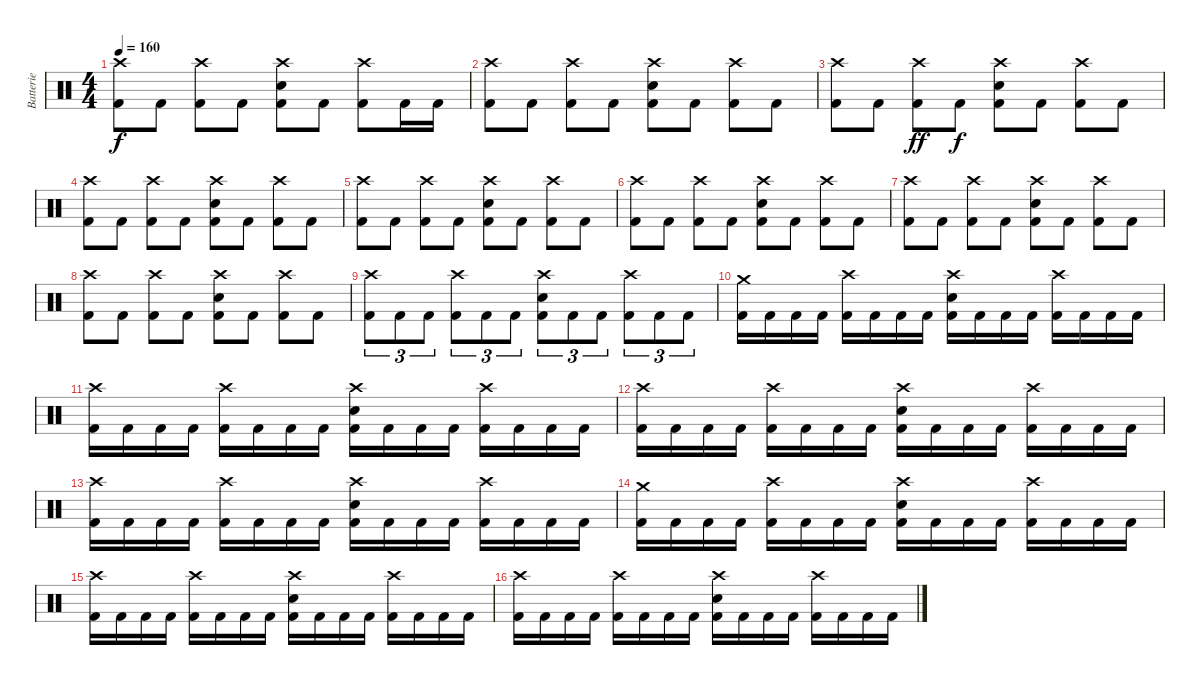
\track ("Batterie" "Batterie") {instrument percussion}
\staff {score}
\articulation defaults
\ts (4 4)
\tempo 160
\clef neutral
\ks c
("Crash high (hit)" "Kick (hit) 2").8{dy f} "Kick (hit) 2".8 ("Crash high (hit)" "Kick (hit) 2").8 "Kick (hit) 2".8 ("Crash high (hit)" "Electric Snare (hit)" "Kick (hit) 2").8 "Kick (hit) 2".8 ("Crash high (hit)" "Kick (hit) 2").8 "Kick (hit) 2".16 "Kick (hit) 2".16 |
("Crash high (hit)" "Kick (hit) 2").8 "Kick (hit) 2".8 ("Crash high (hit)" "Kick (hit) 2").8 "Kick (hit) 2".8 ("Crash high (hit)" "Electric Snare (hit)" "Kick (hit) 2").8 "Kick (hit) 2".8 ("Crash high (hit)" "Kick (hit) 2").8 "Kick (hit) 2".8 |
("Crash high (hit)" "Kick (hit) 2").8 "Kick (hit) 2".8 ("Crash high (hit)" "Kick (hit) 2").8{dy ff} "Kick (hit) 2".8{dy f} ("Crash high (hit)" "Electric Snare (hit)" "Kick (hit) 2").8 "Kick (hit) 2".8 ("Crash high (hit)" "Kick (hit) 2").8 "Kick (hit) 2".8 |
("Crash high (hit)" "Kick (hit) 2").8 "Kick (hit) 2".8 ("Crash high (hit)" "Kick (hit) 2").8 "Kick (hit) 2".8 ("Crash high (hit)" "Electric Snare (hit)" "Kick (hit) 2").8 "Kick (hit) 2".8 ("Crash high (hit)" "Kick (hit) 2").8 "Kick (hit) 2".8 |
("Crash high (hit)" "Kick (hit) 2").8 "Kick (hit) 2".8 ("Crash high (hit)" "Kick (hit) 2").8 "Kick (hit) 2".8 ("Crash high (hit)" "Electric Snare (hit)" "Kick (hit) 2").8 "Kick (hit) 2".8 ("Crash high (hit)" "Kick (hit) 2").8 "Kick (hit) 2".8 |
("Crash high (hit)" "Kick (hit) 2").8 "Kick (hit) 2".8 ("Crash high (hit)" "Kick (hit) 2").8 "Kick (hit) 2".8 ("Crash high (hit)" "Electric Snare (hit)" "Kick (hit) 2").8 "Kick (hit) 2".8 ("Crash high (hit)" "Kick (hit) 2").8 "Kick (hit) 2".8 |
("Crash high (hit)" "Kick (hit) 2").8 "Kick (hit) 2".8 ("Crash high (hit)" "Kick (hit) 2").8 "Kick (hit) 2".8 ("Crash high (hit)" "Electric Snare (hit)" "Kick (hit) 2").8 "Kick (hit) 2".8 ("Crash high (hit)" "Kick (hit) 2").8 "Kick (hit) 2".8 |
("Crash high (hit)" "Kick (hit) 2").8 "Kick (hit) 2".8 ("Crash high (hit)" "Kick (hit) 2").8 "Kick (hit) 2".8 ("Crash high (hit)" "Electric Snare (hit)" "Kick (hit) 2").8 "Kick (hit) 2".8 ("Crash high (hit)" "Kick (hit) 2").8 "Kick (hit) 2".8 |
("Crash high (hit)" "Kick (hit) 2").8{tu (3 2)} "Kick (hit) 2".8{tu (3 2)} "Kick (hit) 2".8{tu (3 2)} ("Crash high (hit)" "Kick (hit) 2").8{tu (3 2)} "Kick (hit) 2".8{tu (3 2)} "Kick (hit) 2".8{tu (3 2)} ("Crash high (hit)" "Electric Snare (hit)" "Kick (hit) 2").8{tu (3 2)} "Kick (hit) 2".8{tu (3 2)} "Kick (hit) 2".8{tu (3 2)} ("Crash high (hit)" "Kick (hit) 2").8{tu (3 2)} "Kick (hit) 2".8{tu (3 2)} "Kick (hit) 2".8{tu (3 2)} |
("Crash medium (hit)" "Kick (hit) 2").16 "Kick (hit) 2".16 "Kick (hit) 2".16 "Kick (hit) 2".16 ("Crash high (hit)" "Kick (hit) 2").16 "Kick (hit) 2".16 "Kick (hit) 2".16 "Kick (hit) 2".16 ("Crash high (hit)" "Electric Snare (hit)" "Kick (hit) 2").16 "Kick (hit) 2".16 "Kick (hit) 2".16 "Kick (hit) 2".16 ("Crash high (hit)" "Kick (hit) 2").16 "Kick (hit) 2".16 "Kick (hit) 2".16 "Kick (hit) 2".16 |
("Crash high (hit)" "Kick (hit) 2").16 "Kick (hit) 2".16 "Kick (hit) 2".16 "Kick (hit) 2".16 ("Crash high (hit)" "Kick (hit) 2").16 "Kick (hit) 2".16 "Kick (hit) 2".16 "Kick (hit) 2".16 ("Crash high (hit)" "Electric Snare (hit)" "Kick (hit) 2").16 "Kick (hit) 2".16 "Kick (hit) 2".16 "Kick (hit) 2".16 ("Crash high (hit)" "Kick (hit) 2").16 "Kick (hit) 2".16 "Kick (hit) 2".16 "Kick (hit) 2".16 |
("Crash high (hit)" "Kick (hit) 2").16 "Kick (hit) 2".16 "Kick (hit) 2".16 "Kick (hit) 2".16 ("Crash high (hit)" "Kick (hit) 2").16 "Kick (hit) 2".16 "Kick (hit) 2".16 "Kick (hit) 2".16 ("Crash high (hit)" "Electric Snare (hit)" "Kick (hit) 2").16 "Kick (hit) 2".16 "Kick (hit) 2".16 "Kick (hit) 2".16 ("Crash high (hit)" "Kick (hit) 2").16 "Kick (hit) 2".16 "Kick (hit) 2".16 "Kick (hit) 2".16 |
("Crash high (hit)" "Kick (hit) 2").16 "Kick (hit) 2".16 "Kick (hit) 2".16 "Kick (hit) 2".16 ("Crash high (hit)" "Kick (hit) 2").16 "Kick (hit) 2".16 "Kick (hit) 2".16 "Kick (hit) 2".16 ("Crash high (hit)" "Electric Snare (hit)" "Kick (hit) 2").16 "Kick (hit) 2".16 "Kick (hit) 2".16 "Kick (hit) 2".16 ("Crash high (hit)" "Kick (hit) 2").16 "Kick (hit) 2".16 "Kick (hit) 2".16 "Kick (hit) 2".16 |
("Crash medium (hit)" "Kick (hit) 2").16 "Kick (hit) 2".16 "Kick (hit) 2".16 "Kick (hit) 2".16 ("Crash high (hit)" "Kick (hit) 2").16 "Kick (hit) 2".16 "Kick (hit) 2".16 "Kick (hit) 2".16 ("Crash high (hit)" "Electric Snare (hit)" "Kick (hit) 2").16 "Kick (hit) 2".16 "Kick (hit) 2".16 "Kick (hit) 2".16 ("Crash high (hit)" "Kick (hit) 2").16 "Kick (hit) 2".16 "Kick (hit) 2".16 "Kick (hit) 2".16 |
("Crash high (hit)" "Kick (hit) 2").16 "Kick (hit) 2".16 "Kick (hit) 2".16 "Kick (hit) 2".16 ("Crash high (hit)" "Kick (hit) 2").16 "Kick (hit) 2".16 "Kick (hit) 2".16 "Kick (hit) 2".16 ("Crash high (hit)" "Electric Snare (hit)" "Kick (hit) 2").16 "Kick (hit) 2".16 "Kick (hit) 2".16 "Kick (hit) 2".16 ("Crash high (hit)" "Kick (hit) 2").16 "Kick (hit) 2".16 "Kick (hit) 2".16 "Kick (hit) 2".16 |
("Crash high (hit)" "Kick (hit) 2").16 "Kick (hit) 2".16 "Kick (hit) 2".16 "Kick (hit) 2".16 ("Crash high (hit)" "Kick (hit) 2").16 "Kick (hit) 2".16 "Kick (hit) 2".16 "Kick (hit) 2".16 ("Crash high (hit)" "Electric Snare (hit)" "Kick (hit) 2").16 "Kick (hit) 2".16 "Kick (hit) 2".16 "Kick (hit) 2".16 ("Crash high (hit)" "Kick (hit) 2").16 "Kick (hit) 2".16 "Kick (hit) 2".16 "Kick (hit) 2".16
